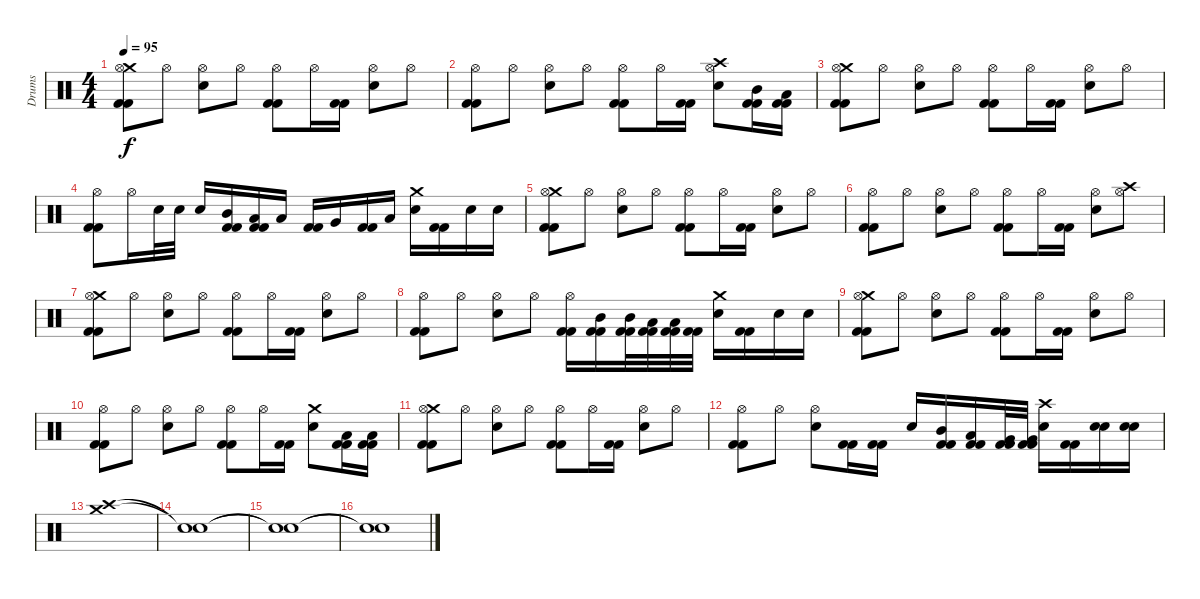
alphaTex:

\track ("Drums" "Drums") {instrument percussion}
\staff {score}
\articulation defaults
\ts (4 4)
\tempo 95
\clef neutral
\ks c
("Crash medium (hit)" "Hi-Hat (open)" "Kick (hit) 2" "Kick (hit) 2").8{dy f} "Hi-Hat (open)".8 ("Hi-Hat (open)" "Electric Snare (hit)").8 "Hi-Hat (open)".8 ("Hi-Hat (open)" "Kick (hit) 2" "Kick (hit) 2").8 "Hi-Hat (open)".16 ("Kick (hit) 2" "Kick (hit) 2").16 ("Hi-Hat (open)" "Electric Snare (hit)").8 "Hi-Hat (open)".8 |
("Hi-Hat (open)" "Kick (hit) 2" "Kick (hit) 2").8 "Hi-Hat (open)".8 ("Hi-Hat (open)" "Electric Snare (hit)").8 "Hi-Hat (open)".8 ("Hi-Hat (open)" "Kick (hit) 2" "Kick (hit) 2").8 "Hi-Hat (open)".16 ("Kick (hit) 2" "Kick (hit) 2").16 ("Crash high (hit)" "Hi-Hat (open)" "Electric Snare (hit)").8 ("Mid Tom (hit)" "Kick (hit) 2" "Kick (hit) 2").16 ("Low Tom (hit)" "Kick (hit) 2" "Kick (hit) 2").16 |
("Crash medium (hit)" "Hi-Hat (open)" "Kick (hit) 2" "Kick (hit) 2").8 "Hi-Hat (open)".8 ("Hi-Hat (open)" "Electric Snare (hit)").8 "Hi-Hat (open)".8 ("Hi-Hat (open)" "Kick (hit) 2" "Kick (hit) 2").8 "Hi-Hat (open)".16 ("Kick (hit) 2" "Kick (hit) 2").16 ("Hi-Hat (open)" "Electric Snare (hit)").8 "Hi-Hat (open)".8 |
("Hi-Hat (open)" "Kick (hit) 2" "Kick (hit) 2").8 "Hi-Hat (open)".16 "Electric Snare (hit)".32 "Electric Snare (hit)".32 "Electric Snare (hit)".16 ("Mid Tom (hit)" "Kick (hit) 2" "Kick (hit) 2").16 ("Low Tom (hit)" "Kick (hit) 2" "Kick (hit) 2").16 "Low Tom (hit)".16 ("Kick (hit) 2" "Kick (hit) 2").16 "Very Low Tom (hit)".16 ("Kick (hit) 2" "Kick (hit) 2").16 "Low Floor Tom (hit)".16 ("Crash medium (hit)" "Electric Snare (hit)").16 ("Kick (hit) 2" "Kick (hit) 2").16 "Electric Snare (hit)".16 "Electric Snare (hit)".16 |
("Crash medium (hit)" "Hi-Hat (open)" "Kick (hit) 2" "Kick (hit) 2").8 "Hi-Hat (open)".8 ("Hi-Hat (open)" "Electric Snare (hit)").8 "Hi-Hat (open)".8 ("Hi-Hat (open)" "Kick (hit) 2" "Kick (hit) 2").8 "Hi-Hat (open)".16 ("Kick (hit) 2" "Kick (hit) 2").16 ("Hi-Hat (open)" "Electric Snare (hit)").8 "Hi-Hat (open)".8 |
("Hi-Hat (open)" "Kick (hit) 2" "Kick (hit) 2").8 "Hi-Hat (open)".8 ("Hi-Hat (open)" "Electric Snare (hit)").8 "Hi-Hat (open)".8 ("Hi-Hat (open)" "Kick (hit) 2" "Kick (hit) 2").8 "Hi-Hat (open)".16 ("Kick (hit) 2" "Kick (hit) 2").16 ("Hi-Hat (open)" "Electric Snare (hit)").8 ("Crash high (hit)" "Hi-Hat (open)").8 |
("Crash medium (hit)" "Hi-Hat (open)" "Kick (hit) 2" "Kick (hit) 2").8 "Hi-Hat (open)".8 ("Hi-Hat (open)" "Electric Snare (hit)").8 "Hi-Hat (open)".8 ("Hi-Hat (open)" "Kick (hit) 2" "Kick (hit) 2").8 "Hi-Hat (open)".16 ("Kick (hit) 2" "Kick (hit) 2").16 ("Hi-Hat (open)" "Electric Snare (hit)").8 "Hi-Hat (open)".8 |
("Hi-Hat (open)" "Kick (hit) 2" "Kick (hit) 2").8 "Hi-Hat (open)".8 ("Hi-Hat (open)" "Electric Snare (hit)").8 "Hi-Hat (open)".8 ("Hi-Hat (open)" "Kick (hit) 2" "Kick (hit) 2").16 ("Mid Tom (hit)" "Kick (hit) 2" "Kick (hit) 2").16 ("Mid Tom (hit)" "Kick (hit) 2" "Kick (hit) 2").32 ("Low Tom (hit)" "Kick (hit) 2" "Kick (hit) 2").32 ("Low Tom (hit)" "Kick (hit) 2" "Kick (hit) 2").32 ("Kick (hit) 2" "Kick (hit) 2").32 ("Crash medium (hit)" "Electric Snare (hit)").16 ("Kick (hit) 2" "Kick (hit) 2").16 "Electric Snare (hit)".16 "Electric Snare (hit)".16 |
("Crash medium (hit)" "Hi-Hat (open)" "Kick (hit) 2" "Kick (hit) 2").8 "Hi-Hat (open)".8 ("Hi-Hat (open)" "Electric Snare (hit)").8 "Hi-Hat (open)".8 ("Hi-Hat (open)" "Kick (hit) 2" "Kick (hit) 2").8 "Hi-Hat (open)".16 ("Kick (hit) 2" "Kick (hit) 2").16 ("Hi-Hat (open)" "Electric Snare (hit)").8 "Hi-Hat (open)".8 |
("Hi-Hat (open)" "Kick (hit) 2" "Kick (hit) 2").8 "Hi-Hat (open)".8 ("Hi-Hat (open)" "Electric Snare (hit)").8 "Hi-Hat (open)".8 ("Hi-Hat (open)" "Kick (hit) 2" "Kick (hit) 2").8 "Hi-Hat (open)".16 ("Kick (hit) 2" "Kick (hit) 2").16 ("Crash medium (hit)" "Electric Snare (hit)").8 ("Low Tom (hit)" "Kick (hit) 2" "Kick (hit) 2").16 ("Low Tom (hit)" "Kick (hit) 2" "Kick (hit) 2").16 |
("Crash medium (hit)" "Hi-Hat (open)" "Kick (hit) 2" "Kick (hit) 2").8 "Hi-Hat (open)".8 ("Hi-Hat (open)" "Electric Snare (hit)").8 "Hi-Hat (open)".8 ("Hi-Hat (open)" "Kick (hit) 2" "Kick (hit) 2").8 "Hi-Hat (open)".16 ("Kick (hit) 2" "Kick (hit) 2").16 ("Hi-Hat (open)" "Electric Snare (hit)").8 "Hi-Hat (open)".8 |
("Hi-Hat (open)" "Kick (hit) 2" "Kick (hit) 2").8 "Hi-Hat (open)".8 ("Hi-Hat (open)" "Electric Snare (hit)").8 ("Kick (hit) 2" "Kick (hit) 2").16 ("Kick (hit) 2" "Kick (hit) 2").16 "Electric Snare (hit)".16 ("Mid Tom (hit)" "Kick (hit) 2" "Kick (hit) 2").16 ("Low Tom (hit)" "Kick (hit) 2" "Kick (hit) 2").16 ("Very Low Tom (hit)" "Kick (hit) 2" "Kick (hit) 2").32 ("Very Low Tom (hit)" "Kick (hit) 2" "Kick (hit) 2").32 ("Crash high (hit)" "Electric Snare (hit)").16 ("Kick (hit) 2" "Kick (hit) 2").16 ("Electric Snare (hit)" "Electric Snare (hit)").16 ("Electric Snare (hit)" "Electric Snare (hit)").16 |
("Crash medium (hit)" "Crash high (hit)").1 |
("Snare (hit)"{t} "Snare (hit)"{t}).1 |
("Snare (hit)"{t} "Snare (hit)"{t}).1 |
("Snare (hit)"{t} "Snare (hit)"{t}).1
